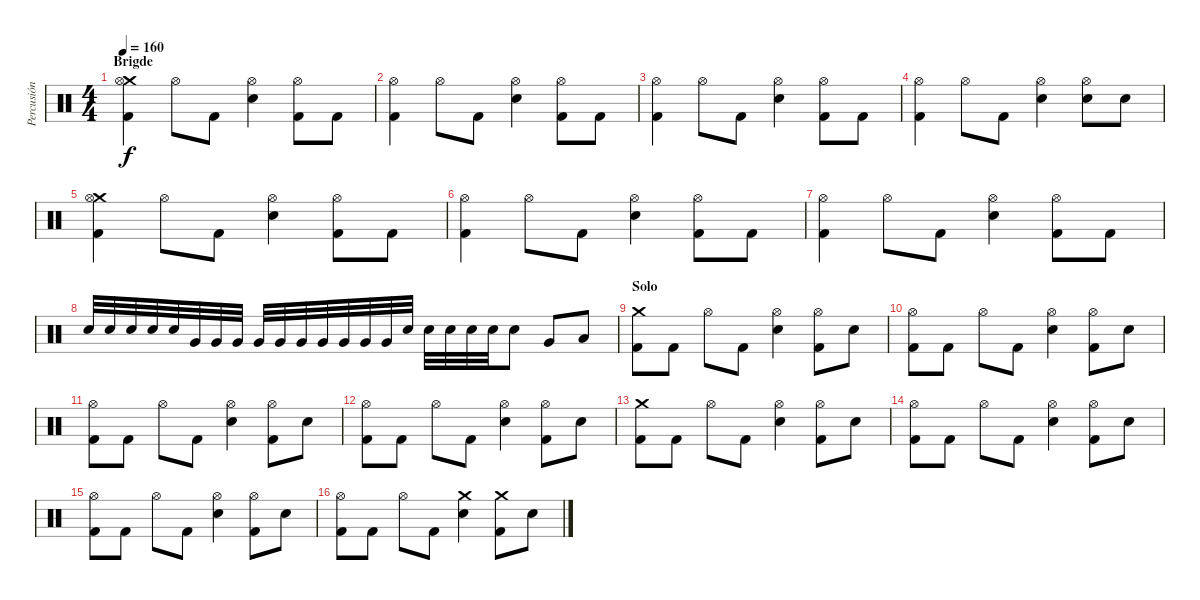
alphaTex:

\track ("Percusión" "Percusión") {instrument percussion}
\staff {score}
\articulation defaults
\ts (4 4)
\section ("" "Brigde")
\tempo 160
\clef neutral
\ks c
("Crash medium (hit)" "Kick (hit) 2" "Hi-Hat (open)").4{dy f} "Hi-Hat (open)".8 "Kick (hit) 2".8 ("Snare (hit) 2" "Hi-Hat (open)").4 ("Hi-Hat (open)" "Kick (hit) 2").8 "Kick (hit) 2".8 |
("Kick (hit) 2" "Hi-Hat (open)").4 "Hi-Hat (open)".8 "Kick (hit) 2".8 ("Snare (hit) 2" "Hi-Hat (open)").4 ("Hi-Hat (open)" "Kick (hit) 2").8 "Kick (hit) 2".8 |
("Kick (hit) 2" "Hi-Hat (open)").4 "Hi-Hat (open)".8 "Kick (hit) 2".8 ("Snare (hit) 2" "Hi-Hat (open)").4 ("Hi-Hat (open)" "Kick (hit) 2").8 "Kick (hit) 2".8 |
("Kick (hit) 2" "Hi-Hat (open)").4 "Hi-Hat (open)".8 "Kick (hit) 2".8 ("Snare (hit) 2" "Hi-Hat (open)").4 ("Hi-Hat (open)" "Snare (hit) 2").8 "Snare (hit) 2".8 |
("Crash medium (hit)" "Kick (hit) 2" "Hi-Hat (open)").4 "Hi-Hat (open)".8 "Kick (hit) 2".8 ("Snare (hit) 2" "Hi-Hat (open)").4 ("Hi-Hat (open)" "Kick (hit) 2").8 "Kick (hit) 2".8 |
("Kick (hit) 2" "Hi-Hat (open)").4 "Hi-Hat (open)".8 "Kick (hit) 2".8 ("Snare (hit) 2" "Hi-Hat (open)").4 ("Hi-Hat (open)" "Kick (hit) 2").8 "Kick (hit) 2".8 |
("Kick (hit) 2" "Hi-Hat (open)").4 "Hi-Hat (open)".8 "Kick (hit) 2".8 ("Snare (hit) 2" "Hi-Hat (open)").4 ("Hi-Hat (open)" "Kick (hit) 2").8 "Kick (hit) 2".8 |
"Snare (hit) 2".32 "Snare (hit) 2".32 "Snare (hit) 2".32 "Snare (hit) 2".32 "Snare (hit) 2".32 "Very Low Tom (hit)".32 "Very Low Tom (hit)".32 "Very Low Tom (hit)".32 "Very Low Tom (hit)".32 "Very Low Tom (hit)".32 "Very Low Tom (hit)".32 "Very Low Tom (hit)".32 "Very Low Tom (hit)".32 "Very Low Tom (hit)".32 "Very Low Tom (hit)".32 "Snare (hit) 2".32 "Snare (hit) 2".32 "Snare (hit) 2".32 "Snare (hit) 2".32 "Snare (hit) 2".32 "Snare (hit) 2".8 "Very Low Tom (hit)".8 "Low Floor Tom (hit)".8 |
\section ("" "Solo")
("Crash medium (hit)" "Kick (hit) 2").8 "Kick (hit) 2".8 "Hi-Hat (open)".8 "Kick (hit) 2".8 ("Hi-Hat (open)" "Snare (hit) 2").4 ("Hi-Hat (open)" "Kick (hit) 2").8 "Snare (hit) 2".8 |
("Hi-Hat (open)" "Kick (hit) 2").8 "Kick (hit) 2".8 "Hi-Hat (open)".8 "Kick (hit) 2".8 ("Hi-Hat (open)" "Snare (hit) 2").4 ("Hi-Hat (open)" "Kick (hit) 2").8 "Snare (hit) 2".8 |
("Hi-Hat (open)" "Kick (hit) 2").8 "Kick (hit) 2".8 "Hi-Hat (open)".8 "Kick (hit) 2".8 ("Hi-Hat (open)" "Snare (hit) 2").4 ("Hi-Hat (open)" "Kick (hit) 2").8 "Snare (hit) 2".8 |
("Hi-Hat (open)" "Kick (hit) 2").8 "Kick (hit) 2".8 "Hi-Hat (open)".8 "Kick (hit) 2".8 ("Hi-Hat (open)" "Snare (hit) 2").4 ("Hi-Hat (open)" "Kick (hit) 2").8 "Snare (hit) 2".8 |
("Crash medium (hit)" "Kick (hit) 2").8 "Kick (hit) 2".8 "Hi-Hat (open)".8 "Kick (hit) 2".8 ("Hi-Hat (open)" "Snare (hit) 2").4 ("Hi-Hat (open)" "Kick (hit) 2").8 "Snare (hit) 2".8 |
("Hi-Hat (open)" "Kick (hit) 2").8 "Kick (hit) 2".8 "Hi-Hat (open)".8 "Kick (hit) 2".8 ("Hi-Hat (open)" "Snare (hit) 2").4 ("Hi-Hat (open)" "Kick (hit) 2").8 "Snare (hit) 2".8 |
("Hi-Hat (open)" "Kick (hit) 2").8 "Kick (hit) 2".8 "Hi-Hat (open)".8 "Kick (hit) 2".8 ("Hi-Hat (open)" "Snare (hit) 2").4 ("Hi-Hat (open)" "Kick (hit) 2").8 "Snare (hit) 2".8 |
("Hi-Hat (open)" "Kick (hit) 2").8 "Kick (hit) 2".8 "Hi-Hat (open)".8 "Kick (hit) 2".8 ("Crash medium (hit)" "Snare (hit) 2").4 ("Crash medium (hit)" "Kick (hit) 2").8 "Snare (hit) 2".8
